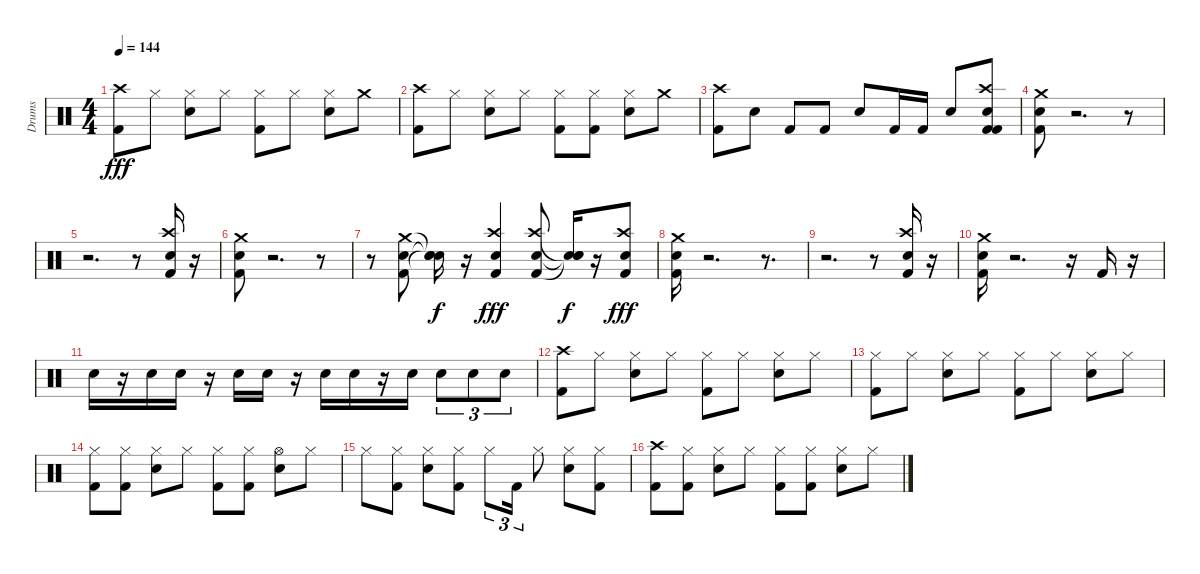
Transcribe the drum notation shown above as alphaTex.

\track ("Drums" "Drums") {instrument percussion}
\staff {score}
\articulation defaults
\ts (4 4)
\tempo 144
\clef neutral
\ks c
("Kick (hit) 2" "Crash high (hit)").8{dy fff} "Hi-Hat (closed)".8 ("Hi-Hat (closed)" "Snare (hit) 2").8 "Hi-Hat (closed)".8 ("Kick (hit) 2" "Hi-Hat (closed)").8 "Hi-Hat (closed)".8 ("Snare (hit) 2" "Hi-Hat (closed)").8 "Crash medium (hit)".8 |
("Kick (hit) 2" "Crash high (hit)").8 "Hi-Hat (closed)".8 ("Hi-Hat (closed)" "Snare (hit) 2").8 "Hi-Hat (closed)".8 ("Hi-Hat (closed)" "Kick (hit) 2").8 ("Hi-Hat (closed)" "Kick (hit) 2").8 ("Hi-Hat (closed)" "Snare (hit) 2").8 "Crash medium (hit)".8 |
("Crash high (hit)" "Kick (hit) 2").8 "Snare (hit) 2".8 "Kick (hit) 2".8 "Kick (hit) 2".8 "Snare (hit) 2".8 "Kick (hit) 2".16 "Kick (hit) 2".16 "Snare (hit) 2".8 ("Crash high (hit)" "Snare (hit) 2" "Kick (hit) 2" "Kick (hit) 2").8 |
("Kick (hit) 2" "Snare (hit) 2" "Crash medium (hit)").8 r.2{d} r.8 |
r.2{d} r.8 ("Kick (hit) 2" "Snare (hit) 2" "Crash high (hit)").16 r.16 |
("Kick (hit) 2" "Snare (hit) 2" "Crash medium (hit)").8 r.2{d} r.8 |
r.8 ("Kick (hit) 2" "Snare (hit) 2" "Crash medium (hit)").8 ("Snare (hit)"{t} "Snare (hit)"{t} "Snare (hit)"{t}).16{dy f} r.16 ("Kick (hit) 2" "Snare (hit) 2" "Crash high (hit)").4{dy fff} ("Kick (hit) 2" "Snare (hit) 2" "Crash high (hit)").8 ("Snare (hit)"{t} "Snare (hit)"{t} "Snare (hit)"{t}).16{dy f} r.16 ("Kick (hit) 2" "Snare (hit) 2" "Crash high (hit)").8{dy fff} |
("Kick (hit) 2" "Snare (hit) 2" "Crash medium (hit)").16 r.2{d} r.8{d} |
r.2{d} r.8 ("Kick (hit) 2" "Snare (hit) 2" "Crash high (hit)").16 r.16 |
("Kick (hit) 2" "Snare (hit) 2" "Crash medium (hit)").16 r.2{d} r.16 "Kick (hit) 2".16 r.16 |
"Snare (hit) 2".16 r.16 "Snare (hit) 2".16 "Snare (hit) 2".16 r.16 "Snare (hit) 2".16 "Snare (hit) 2".16 r.16 "Snare (hit) 2".16 "Snare (hit) 2".16 r.16 "Snare (hit) 2".16 "Snare (hit) 2".8{tu (3 2)} "Snare (hit) 2".8{tu (3 2)} "Snare (hit) 2".8{tu (3 2)} |
("Crash high (hit)" "Kick (hit) 2").8 "Hi-Hat (closed)".8 ("Snare (hit) 2" "Hi-Hat (closed)").8 "Hi-Hat (closed)".8 ("Kick (hit) 2" "Hi-Hat (closed)").8 "Hi-Hat (closed)".8 ("Snare (hit) 2" "Hi-Hat (closed)").8 "Hi-Hat (closed)".8 |
("Kick (hit) 2" "Hi-Hat (closed)").8 "Hi-Hat (closed)".8 ("Snare (hit) 2" "Hi-Hat (closed)").8 "Hi-Hat (closed)".8 ("Kick (hit) 2" "Hi-Hat (closed)").8 "Hi-Hat (closed)".8 ("Snare (hit) 2" "Hi-Hat (closed)").8 "Hi-Hat (closed)".8 |
("Kick (hit) 2" "Hi-Hat (closed)").8 ("Kick (hit) 2" "Hi-Hat (closed)").8 ("Snare (hit) 2" "Hi-Hat (closed)").8 "Hi-Hat (closed)".8 ("Kick (hit) 2" "Hi-Hat (closed)").8 ("Kick (hit) 2" "Hi-Hat (closed)").8 ("Snare (hit) 2" "Hi-Hat (open)").8 "Hi-Hat (closed)".8 |
"Hi-Hat (closed)".8 ("Kick (hit) 2" "Hi-Hat (closed)").8 ("Snare (hit) 2" "Hi-Hat (closed)").8 ("Hi-Hat (closed)" "Kick (hit) 2").8 "Hi-Hat (closed)".8{tu (3 2)} "Kick (hit) 2".16{tu (3 2)} "Hi-Hat (closed)".8 ("Snare (hit) 2" "Hi-Hat (closed)").8 ("Hi-Hat (closed)" "Kick (hit) 2").8 |
("Kick (hit) 2" "Crash high (hit)").8 ("Kick (hit) 2" "Hi-Hat (closed)").8 ("Snare (hit) 2" "Hi-Hat (closed)").8 "Hi-Hat (closed)".8 ("Kick (hit) 2" "Hi-Hat (closed)").8 ("Kick (hit) 2" "Hi-Hat (closed)").8 ("Snare (hit) 2" "Hi-Hat (closed)").8 "Hi-Hat (closed)".8
